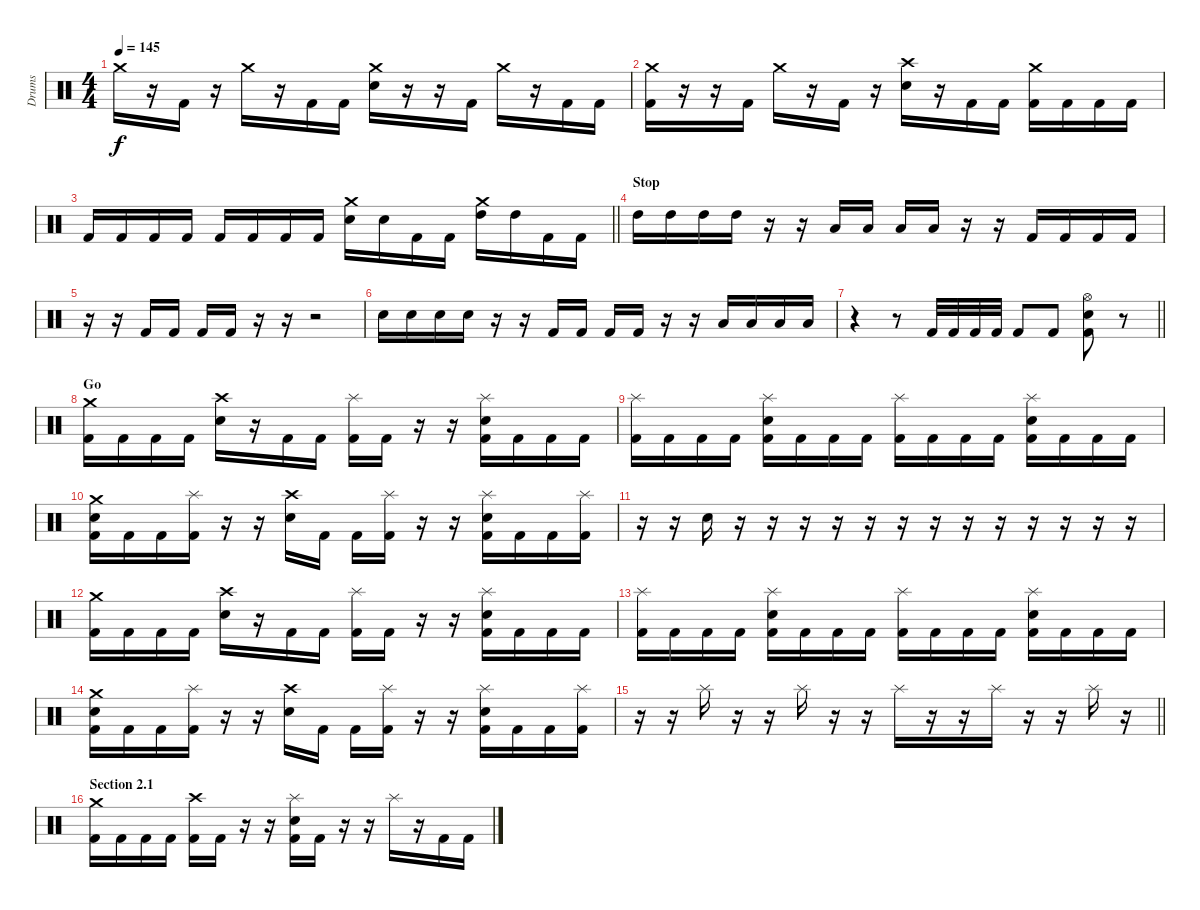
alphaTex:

\track ("Drums" "Drums") {instrument percussion}
\staff {score}
\articulation defaults
\ts (4 4)
\tempo 145
\clef neutral
\ks c "Crash medium (hit)".16{dy f}
r.16 "Kick (hit) 2".16 r.16 "Crash medium (hit)".16 r.16 "Kick (hit) 2".16 "Kick (hit) 2".16 ("Crash medium (hit)" "Electric Snare (hit)").16 r.16 r.16 "Kick (hit) 2".16 "Crash medium (hit)".16 r.16 "Kick (hit) 2".16 "Kick (hit) 2".16 |
("Crash medium (hit)" "Kick (hit) 2").16 r.16 r.16 "Kick (hit) 2".16 "Crash medium (hit)".16 r.16 "Kick (hit) 2".16 r.16 ("Crash high (hit)" "Electric Snare (hit)").16 r.16 "Kick (hit) 2".16 "Kick (hit) 2".16 ("Crash medium (hit)" "Kick (hit) 2").16 "Kick (hit) 2".16 "Kick (hit) 2".16 "Kick (hit) 2".16 |
\barLineRight lightlight "Kick (hit) 2".16 "Kick (hit) 2".16 "Kick (hit) 2".16 "Kick (hit) 2".16 "Kick (hit) 2".16 "Kick (hit) 2".16 "Kick (hit) 2".16 "Kick (hit) 2".16
("Crash medium (hit)" "Electric Snare (hit)").16 "Electric Snare (hit)".16 "Kick (hit) 2".16 "Kick (hit) 2".16 ("Crash medium (hit)" "High Tom (hit)").16 "High Tom (hit)".16 "Kick (hit) 2".16 "Kick (hit) 2".16 |
\section ("" "Stop")
"High Tom (hit)".16 "High Tom (hit)".16 "High Tom (hit)".16 "High Tom (hit)".16 r.16 r.16 "Low Tom (hit)".16 "Low Tom (hit)".16 "Low Tom (hit)".16 "Low Tom (hit)".16 r.16 r.16 "Kick (hit) 2".16 "Kick (hit) 2".16 "Kick (hit) 2".16 "Kick (hit) 2".16 |
r.16 r.16 "Kick (hit) 2".16 "Kick (hit) 2".16 "Kick (hit) 2".16 "Kick (hit) 2".16 r.16 r.16 r.2 |
"Electric Snare (hit)".16 "Electric Snare (hit)".16 "Electric Snare (hit)".16 "Electric Snare (hit)".16 r.16 r.16 "Kick (hit) 2".16 "Kick (hit) 2".16 "Kick (hit) 2".16 "Kick (hit) 2".16 r.16 r.16 "Low Tom (hit)".16 "Low Tom (hit)".16 "Low Tom (hit)".16 "Low Tom (hit)".16 |
\barLineRight lightlight
r.4 r.8 "Kick (hit) 2".32 "Kick (hit) 2".32 "Kick (hit) 2".32 "Kick (hit) 2".32 "Kick (hit) 2".8 "Kick (hit) 2".8 ("Hi-Hat (open)" "Electric Snare (hit)" "Kick (hit) 2").8 r.8 |
\section ("" "Go")
("Crash medium (hit)" "Kick (hit) 2").16 "Kick (hit) 2".16 "Kick (hit) 2".16 "Kick (hit) 2".16 ("Crash high (hit)" "Electric Snare (hit)").16 r.16 "Kick (hit) 2".16 "Kick (hit) 2".16 ("Splash (hit)" "Kick (hit) 2").16 "Kick (hit) 2".16 r.16 r.16 ("Splash (hit)" "Electric Snare (hit)" "Kick (hit) 2").16 "Kick (hit) 2".16 "Kick (hit) 2".16 "Kick (hit) 2".16 |
("Splash (hit)" "Kick (hit) 2").16 "Kick (hit) 2".16 "Kick (hit) 2".16 "Kick (hit) 2".16 ("Splash (hit)" "Electric Snare (hit)" "Kick (hit) 2").16 "Kick (hit) 2".16 "Kick (hit) 2".16 "Kick (hit) 2".16 ("Splash (hit)" "Kick (hit) 2").16 "Kick (hit) 2".16 "Kick (hit) 2".16 "Kick (hit) 2".16 ("Splash (hit)" "Electric Snare (hit)" "Kick (hit) 2").16 "Kick (hit) 2".16 "Kick (hit) 2".16 "Kick (hit) 2".16 |
("Crash medium (hit)" "Electric Snare (hit)" "Kick (hit) 2").16 "Kick (hit) 2".16 "Kick (hit) 2".16 ("Splash (hit)" "Kick (hit) 2").16 r.16 r.16 ("Crash high (hit)" "Electric Snare (hit)").16 "Kick (hit) 2".16 "Kick (hit) 2".16 ("Splash (hit)" "Kick (hit) 2").16 r.16 r.16 ("Splash (hit)" "Electric Snare (hit)" "Kick (hit) 2").16 "Kick (hit) 2".16 "Kick (hit) 2".16 ("Splash (hit)" "Kick (hit) 2").16 |
r.16 r.16 "Electric Snare (hit)".16 r.16 r.16 r.16 r.16 r.16 r.16 r.16 r.16 r.16 r.16 r.16 r.16 r.16 |
("Crash medium (hit)" "Kick (hit) 2").16 "Kick (hit) 2".16 "Kick (hit) 2".16 "Kick (hit) 2".16 ("Crash high (hit)" "Electric Snare (hit)").16 r.16 "Kick (hit) 2".16 "Kick (hit) 2".16 ("Splash (hit)" "Kick (hit) 2").16 "Kick (hit) 2".16 r.16 r.16 ("Splash (hit)" "Electric Snare (hit)" "Kick (hit) 2").16 "Kick (hit) 2".16 "Kick (hit) 2".16 "Kick (hit) 2".16 |
("Splash (hit)" "Kick (hit) 2").16 "Kick (hit) 2".16 "Kick (hit) 2".16 "Kick (hit) 2".16 ("Splash (hit)" "Electric Snare (hit)" "Kick (hit) 2").16 "Kick (hit) 2".16 "Kick (hit) 2".16 "Kick (hit) 2".16 ("Splash (hit)" "Kick (hit) 2").16 "Kick (hit) 2".16 "Kick (hit) 2".16 "Kick (hit) 2".16 ("Splash (hit)" "Electric Snare (hit)" "Kick (hit) 2").16 "Kick (hit) 2".16 "Kick (hit) 2".16 "Kick (hit) 2".16 |
("Crash medium (hit)" "Electric Snare (hit)" "Kick (hit) 2").16 "Kick (hit) 2".16 "Kick (hit) 2".16 ("Splash (hit)" "Kick (hit) 2").16 r.16 r.16 ("Crash high (hit)" "Electric Snare (hit)").16 "Kick (hit) 2".16 "Kick (hit) 2".16 ("Splash (hit)" "Kick (hit) 2").16 r.16 r.16 ("Splash (hit)" "Electric Snare (hit)" "Kick (hit) 2").16 "Kick (hit) 2".16 "Kick (hit) 2".16 ("Splash (hit)" "Kick (hit) 2").16 |
\barLineRight lightlight
r.16 r.16 "Splash (hit)".16 r.16 r.16 "Splash (hit)".16 r.16 r.16 "Splash (hit)".16 r.16 r.16 "Splash (hit)".16 r.16 r.16 "Splash (hit)".16 r.16 |
\section ("" "Section 2.1")
("Crash medium (hit)" "Kick (hit) 2").16 "Kick (hit) 2".16 "Kick (hit) 2".16 "Kick (hit) 2".16 ("Crash high (hit)" "Kick (hit) 2").16 "Kick (hit) 2".16 r.16 r.16 ("Splash (hit)" "Electric Snare (hit)" "Kick (hit) 2").16 "Kick (hit) 2".16 r.16 r.16 "Splash (hit)".16 r.16 "Kick (hit) 2".16 "Kick (hit) 2".16
